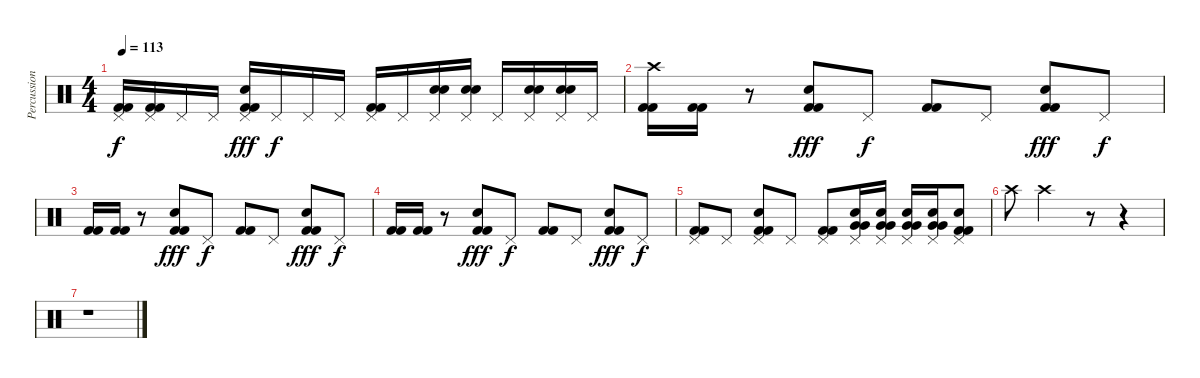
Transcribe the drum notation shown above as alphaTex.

\track ("Percussion" "Percussion") {instrument percussion}
\staff {score}
\articulation defaults
\ts (4 4)
\tempo 113
\clef neutral
\ks c
("Pedal Hi-Hat (hit)" "Kick (hit) 2" "Kick (hit) 2").16{dy f} ("Pedal Hi-Hat (hit)" "Kick (hit) 2" "Kick (hit) 2").16 "Pedal Hi-Hat (hit)".16 "Pedal Hi-Hat (hit)".16 ("Pedal Hi-Hat (hit)" "Electric Snare (hit)" "Kick (hit) 2" "Kick (hit) 2").16{dy fff} "Pedal Hi-Hat (hit)".16{dy f} "Pedal Hi-Hat (hit)".16 "Pedal Hi-Hat (hit)".16 ("Pedal Hi-Hat (hit)" "Kick (hit) 2" "Kick (hit) 2").16 "Pedal Hi-Hat (hit)".16 ("Pedal Hi-Hat (hit)" "Electric Snare (hit)" "Electric Snare (hit)").16 ("Pedal Hi-Hat (hit)" "Electric Snare (hit)" "Electric Snare (hit)").16 "Pedal Hi-Hat (hit)".16 ("Pedal Hi-Hat (hit)" "Electric Snare (hit)" "Electric Snare (hit)").16 ("Pedal Hi-Hat (hit)" "Electric Snare (hit)" "Electric Snare (hit)").16 "Pedal Hi-Hat (hit)".16 |
("Crash high (hit)" "Kick (hit) 2" "Kick (hit) 2").16 ("Kick (hit) 2" "Kick (hit) 2").16 r.8 ("Electric Snare (hit)" "Kick (hit) 2" "Kick (hit) 2").8{dy fff} "Pedal Hi-Hat (hit)".8{dy f} ("Kick (hit) 2" "Kick (hit) 2").8 "Pedal Hi-Hat (hit)".8 ("Electric Snare (hit)" "Kick (hit) 2" "Kick (hit) 2").8{dy fff} "Pedal Hi-Hat (hit)".8{dy f} |
("Kick (hit) 2" "Kick (hit) 2").16 ("Kick (hit) 2" "Kick (hit) 2").16 r.8 ("Electric Snare (hit)" "Kick (hit) 2" "Kick (hit) 2").8{dy fff} "Pedal Hi-Hat (hit)".8{dy f} ("Kick (hit) 2" "Kick (hit) 2").8 "Pedal Hi-Hat (hit)".8 ("Electric Snare (hit)" "Kick (hit) 2" "Kick (hit) 2").8{dy fff} "Pedal Hi-Hat (hit)".8{dy f} |
("Kick (hit) 2" "Kick (hit) 2").16 ("Kick (hit) 2" "Kick (hit) 2").16 r.8 ("Electric Snare (hit)" "Kick (hit) 2" "Kick (hit) 2").8{dy fff} "Pedal Hi-Hat (hit)".8{dy f} ("Kick (hit) 2" "Kick (hit) 2").8 "Pedal Hi-Hat (hit)".8 ("Electric Snare (hit)" "Kick (hit) 2" "Kick (hit) 2").8{dy fff} "Pedal Hi-Hat (hit)".8{dy f} |
("Pedal Hi-Hat (hit)" "Kick (hit) 2" "Kick (hit) 2").8 "Pedal Hi-Hat (hit)".8 ("Pedal Hi-Hat (hit)" "Electric Snare (hit)" "Kick (hit) 2" "Kick (hit) 2").8 "Pedal Hi-Hat (hit)".8 ("Pedal Hi-Hat (hit)" "Kick (hit) 2" "Kick (hit) 2").8 ("Pedal Hi-Hat (hit)" "Electric Snare (hit)" "Very Low Tom (hit)" "Very Low Tom (hit)").16 ("Pedal Hi-Hat (hit)" "Electric Snare (hit)" "Very Low Tom (hit)" "Very Low Tom (hit)").16 ("Pedal Hi-Hat (hit)" "Electric Snare (hit)" "Very Low Tom (hit)" "Very Low Tom (hit)").16 ("Pedal Hi-Hat (hit)" "Electric Snare (hit)" "Very Low Tom (hit)" "Very Low Tom (hit)").16 ("Pedal Hi-Hat (hit)" "Electric Snare (hit)" "Kick (hit) 2" "Kick (hit) 2").8 |
"Crash high (hit)".8 "Crash high (hit)".2 r.8 r.4 |
r.1
